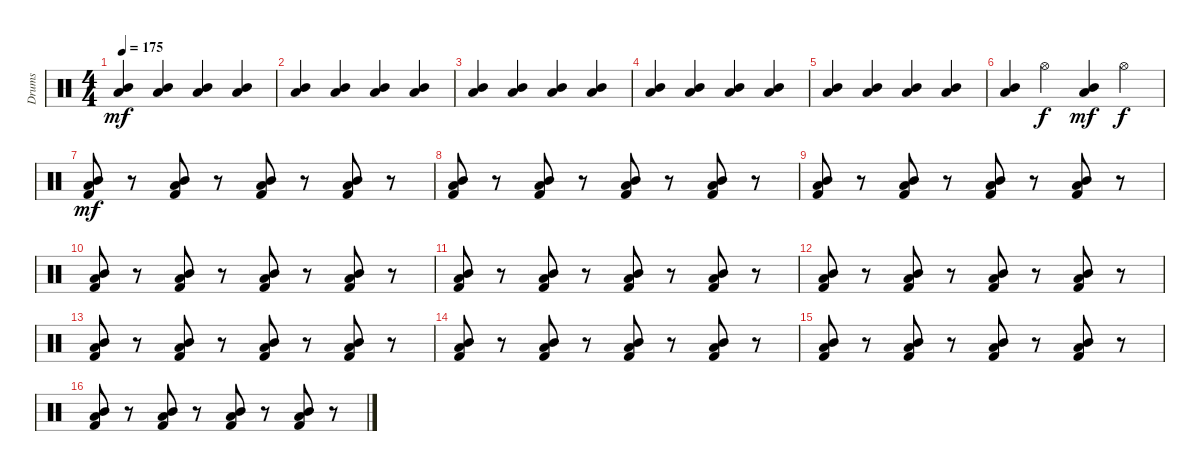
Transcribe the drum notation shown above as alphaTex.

\track ("Drums" "Drums") {instrument percussion}
\staff {score}
\articulation defaults
\ts (4 4)
\tempo 175
\clef neutral
\ks c
("Mid Tom (hit)" "Low Tom (hit)").4{dy mf} ("Mid Tom (hit)" "Low Tom (hit)").4 ("Mid Tom (hit)" "Low Tom (hit)").4 ("Mid Tom (hit)" "Low Tom (hit)").4 |
("Mid Tom (hit)" "Low Tom (hit)").4 ("Mid Tom (hit)" "Low Tom (hit)").4 ("Mid Tom (hit)" "Low Tom (hit)").4 ("Mid Tom (hit)" "Low Tom (hit)").4 |
("Mid Tom (hit)" "Low Tom (hit)").4 ("Mid Tom (hit)" "Low Tom (hit)").4 ("Mid Tom (hit)" "Low Tom (hit)").4 ("Mid Tom (hit)" "Low Tom (hit)").4 |
("Mid Tom (hit)" "Low Tom (hit)").4 ("Mid Tom (hit)" "Low Tom (hit)").4 ("Mid Tom (hit)" "Low Tom (hit)").4 ("Mid Tom (hit)" "Low Tom (hit)").4 |
("Mid Tom (hit)" "Low Tom (hit)").4 ("Mid Tom (hit)" "Low Tom (hit)").4 ("Mid Tom (hit)" "Low Tom (hit)").4 ("Mid Tom (hit)" "Low Tom (hit)").4 |
("Mid Tom (hit)" "Low Tom (hit)").4 "Hi-Hat (open)".4{dy f} ("Mid Tom (hit)" "Low Tom (hit)").4{dy mf} "Hi-Hat (open)".4{dy f} |
("Mid Tom (hit)" "Low Tom (hit)" "Kick (hit) 2").8{dy mf} r.8 ("Mid Tom (hit)" "Low Tom (hit)" "Kick (hit) 2").8 r.8 ("Mid Tom (hit)" "Low Tom (hit)" "Kick (hit) 2").8 r.8 ("Mid Tom (hit)" "Low Tom (hit)" "Kick (hit) 2").8 r.8 |
("Mid Tom (hit)" "Low Tom (hit)" "Kick (hit) 2").8 r.8 ("Mid Tom (hit)" "Low Tom (hit)" "Kick (hit) 2").8 r.8 ("Mid Tom (hit)" "Low Tom (hit)" "Kick (hit) 2").8 r.8 ("Mid Tom (hit)" "Low Tom (hit)" "Kick (hit) 2").8 r.8 |
("Mid Tom (hit)" "Low Tom (hit)" "Kick (hit) 2").8 r.8 ("Mid Tom (hit)" "Low Tom (hit)" "Kick (hit) 2").8 r.8 ("Mid Tom (hit)" "Low Tom (hit)" "Kick (hit) 2").8 r.8 ("Mid Tom (hit)" "Low Tom (hit)" "Kick (hit) 2").8 r.8 |
("Mid Tom (hit)" "Low Tom (hit)" "Kick (hit) 2").8 r.8 ("Mid Tom (hit)" "Low Tom (hit)" "Kick (hit) 2").8 r.8 ("Mid Tom (hit)" "Low Tom (hit)" "Kick (hit) 2").8 r.8 ("Mid Tom (hit)" "Low Tom (hit)" "Kick (hit) 2").8 r.8 |
("Mid Tom (hit)" "Low Tom (hit)" "Kick (hit) 2").8 r.8 ("Mid Tom (hit)" "Low Tom (hit)" "Kick (hit) 2").8 r.8 ("Mid Tom (hit)" "Low Tom (hit)" "Kick (hit) 2").8 r.8 ("Mid Tom (hit)" "Low Tom (hit)" "Kick (hit) 2").8 r.8 |
("Mid Tom (hit)" "Low Tom (hit)" "Kick (hit) 2").8 r.8 ("Mid Tom (hit)" "Low Tom (hit)" "Kick (hit) 2").8 r.8 ("Mid Tom (hit)" "Low Tom (hit)" "Kick (hit) 2").8 r.8 ("Mid Tom (hit)" "Low Tom (hit)" "Kick (hit) 2").8 r.8 |
("Mid Tom (hit)" "Low Tom (hit)" "Kick (hit) 2").8 r.8 ("Mid Tom (hit)" "Low Tom (hit)" "Kick (hit) 2").8 r.8 ("Mid Tom (hit)" "Low Tom (hit)" "Kick (hit) 2").8 r.8 ("Mid Tom (hit)" "Low Tom (hit)" "Kick (hit) 2").8 r.8 |
("Mid Tom (hit)" "Low Tom (hit)" "Kick (hit) 2").8 r.8 ("Mid Tom (hit)" "Low Tom (hit)" "Kick (hit) 2").8 r.8 ("Mid Tom (hit)" "Low Tom (hit)" "Kick (hit) 2").8 r.8 ("Mid Tom (hit)" "Low Tom (hit)" "Kick (hit) 2").8 r.8 |
("Mid Tom (hit)" "Low Tom (hit)" "Kick (hit) 2").8 r.8 ("Mid Tom (hit)" "Low Tom (hit)" "Kick (hit) 2").8 r.8 ("Mid Tom (hit)" "Low Tom (hit)" "Kick (hit) 2").8 r.8 ("Mid Tom (hit)" "Low Tom (hit)" "Kick (hit) 2").8 r.8 |
("Mid Tom (hit)" "Low Tom (hit)" "Kick (hit) 2").8 r.8 ("Mid Tom (hit)" "Low Tom (hit)" "Kick (hit) 2").8 r.8 ("Mid Tom (hit)" "Low Tom (hit)" "Kick (hit) 2").8 r.8 ("Mid Tom (hit)" "Low Tom (hit)" "Kick (hit) 2").8 r.8
